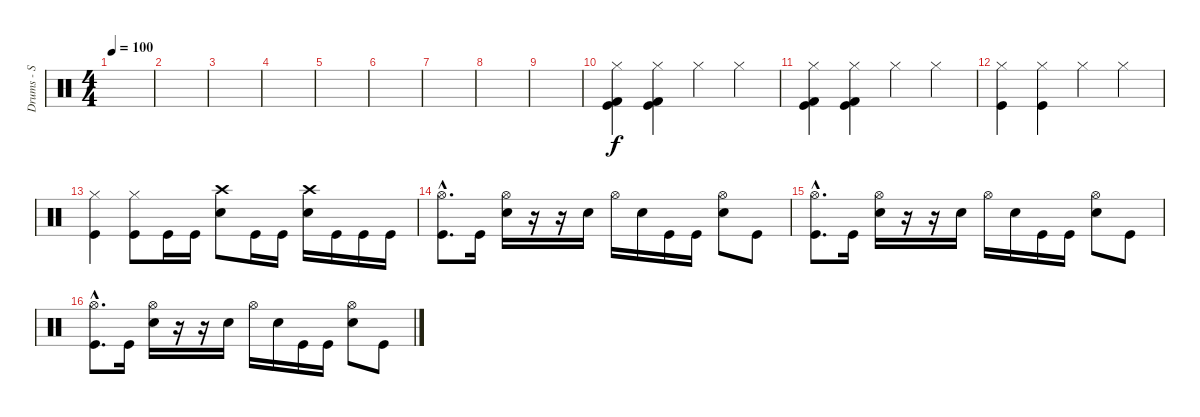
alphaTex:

\track ("Drums - S Man" "Drums - S ") {instrument percussion}
\staff {score}
\articulation defaults
\ts (4 4)
\tempo 100
\clef neutral
\ks c
|
|
|
|
|
|
|
|
|
("Hi-Hat (closed)" "Kick (hit) 2" "Kick (hit)").4 ("Hi-Hat (closed)" "Kick (hit) 2" "Kick (hit)").4 "Hi-Hat (closed)".4 "Hi-Hat (closed)".4 |
("Hi-Hat (closed)" "Kick (hit) 2" "Kick (hit)").4 ("Hi-Hat (closed)" "Kick (hit) 2" "Kick (hit)").4 "Hi-Hat (closed)".4 "Hi-Hat (closed)".4 |
("Hi-Hat (closed)" "Kick (hit)").4 ("Hi-Hat (closed)" "Kick (hit)").4 "Hi-Hat (closed)".4 "Hi-Hat (closed)".4 |
("Hi-Hat (closed)" "Kick (hit)").4 ("Hi-Hat (closed)" "Kick (hit)").8 "Kick (hit)".16 "Kick (hit)".16 ("Crash high (hit)" "Electric Snare (hit)").8 "Kick (hit)".16 "Kick (hit)".16 ("Crash high (hit)" "Electric Snare (hit)").16 "Kick (hit)".16 "Kick (hit)".16 "Kick (hit)".16 |
("Hi-Hat (open)"{hac} "Kick (hit)"{hac}).8{d} "Kick (hit)".16 ("Hi-Hat (open)" "Electric Snare (hit)").16 r.16 r.16 "Electric Snare (hit)".16 "Hi-Hat (open)".16 "Electric Snare (hit)".16 "Kick (hit)".16 "Kick (hit)".16 ("Hi-Hat (open)" "Electric Snare (hit)").8 "Kick (hit)".8 |
("Hi-Hat (open)"{hac} "Kick (hit)"{hac}).8{d} "Kick (hit)".16 ("Hi-Hat (open)" "Electric Snare (hit)").16 r.16 r.16 "Electric Snare (hit)".16 "Hi-Hat (open)".16 "Electric Snare (hit)".16 "Kick (hit)".16 "Kick (hit)".16 ("Hi-Hat (open)" "Electric Snare (hit)").8 "Kick (hit)".8 |
("Hi-Hat (open)"{hac} "Kick (hit)"{hac}).8{d} "Kick (hit)".16 ("Hi-Hat (open)" "Electric Snare (hit)").16 r.16 r.16 "Electric Snare (hit)".16 "Hi-Hat (open)".16 "Electric Snare (hit)".16 "Kick (hit)".16 "Kick (hit)".16 ("Hi-Hat (open)" "Electric Snare (hit)").8 "Kick (hit)".8
